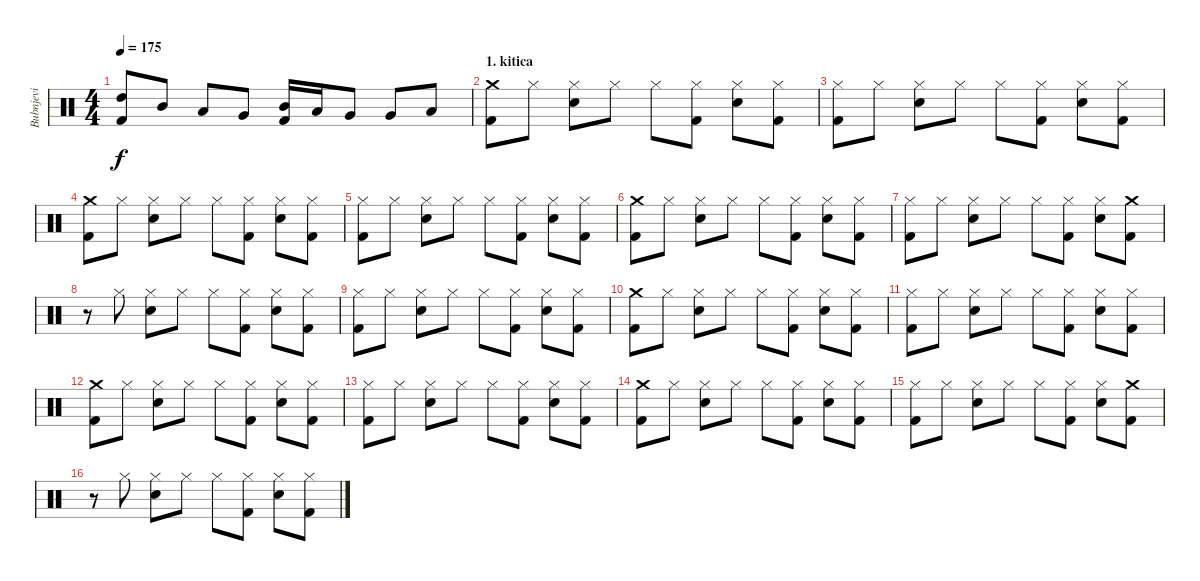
\track ("Bubnjevi" "Bubnjevi") {instrument percussion}
\staff {score}
\articulation defaults
\ts (4 4)
\tempo 175
\clef neutral
\ks c
("High Tom (hit)" "Kick (hit) 2").8{dy f} "Mid Tom (hit)".8 "Low Tom (hit)".8 "Very Low Tom (hit)".8 ("Mid Tom (hit)" "Kick (hit) 2").16 "Low Tom (hit)".16 "Very Low Tom (hit)".8 "Very Low Tom (hit)".8 "Low Floor Tom (hit)".8 |
\section ("" "1. kitica")
("Crash medium (hit)" "Kick (hit) 2").8 "Hi-Hat (closed)".8 ("Electric Snare (hit)" "Hi-Hat (closed)").8 "Hi-Hat (closed)".8 "Hi-Hat (closed)".8 ("Hi-Hat (closed)" "Kick (hit) 2").8 ("Electric Snare (hit)" "Hi-Hat (closed)").8 ("Hi-Hat (closed)" "Kick (hit) 2").8 |
("Hi-Hat (closed)" "Kick (hit) 2").8 "Hi-Hat (closed)".8 ("Electric Snare (hit)" "Hi-Hat (closed)").8 "Hi-Hat (closed)".8 "Hi-Hat (closed)".8 ("Hi-Hat (closed)" "Kick (hit) 2").8 ("Electric Snare (hit)" "Hi-Hat (closed)").8 ("Hi-Hat (closed)" "Kick (hit) 2").8 |
("Crash medium (hit)" "Kick (hit) 2").8 "Hi-Hat (closed)".8 ("Electric Snare (hit)" "Hi-Hat (closed)").8 "Hi-Hat (closed)".8 "Hi-Hat (closed)".8 ("Hi-Hat (closed)" "Kick (hit) 2").8 ("Electric Snare (hit)" "Hi-Hat (closed)").8 ("Hi-Hat (closed)" "Kick (hit) 2").8 |
("Hi-Hat (closed)" "Kick (hit) 2").8 "Hi-Hat (closed)".8 ("Electric Snare (hit)" "Hi-Hat (closed)").8 "Hi-Hat (closed)".8 "Hi-Hat (closed)".8 ("Hi-Hat (closed)" "Kick (hit) 2").8 ("Electric Snare (hit)" "Hi-Hat (closed)").8 ("Hi-Hat (closed)" "Kick (hit) 2").8 |
("Crash medium (hit)" "Kick (hit) 2").8 "Hi-Hat (closed)".8 ("Electric Snare (hit)" "Hi-Hat (closed)").8 "Hi-Hat (closed)".8 "Hi-Hat (closed)".8 ("Hi-Hat (closed)" "Kick (hit) 2").8 ("Electric Snare (hit)" "Hi-Hat (closed)").8 ("Hi-Hat (closed)" "Kick (hit) 2").8 |
("Hi-Hat (closed)" "Kick (hit) 2").8 "Hi-Hat (closed)".8 ("Electric Snare (hit)" "Hi-Hat (closed)").8 "Hi-Hat (closed)".8 "Hi-Hat (closed)".8 ("Hi-Hat (closed)" "Kick (hit) 2").8 ("Electric Snare (hit)" "Hi-Hat (closed)").8 ("Crash medium (hit)" "Kick (hit) 2").8 |
r.8 "Hi-Hat (closed)".8 ("Electric Snare (hit)" "Hi-Hat (closed)").8 "Hi-Hat (closed)".8 "Hi-Hat (closed)".8 ("Hi-Hat (closed)" "Kick (hit) 2").8 ("Electric Snare (hit)" "Hi-Hat (closed)").8 ("Hi-Hat (closed)" "Kick (hit) 2").8 |
("Hi-Hat (closed)" "Kick (hit) 2").8 "Hi-Hat (closed)".8 ("Electric Snare (hit)" "Hi-Hat (closed)").8 "Hi-Hat (closed)".8 "Hi-Hat (closed)".8 ("Hi-Hat (closed)" "Kick (hit) 2").8 ("Electric Snare (hit)" "Hi-Hat (closed)").8 ("Hi-Hat (closed)" "Kick (hit) 2").8 |
("Crash medium (hit)" "Kick (hit) 2").8 "Hi-Hat (closed)".8 ("Electric Snare (hit)" "Hi-Hat (closed)").8 "Hi-Hat (closed)".8 "Hi-Hat (closed)".8 ("Hi-Hat (closed)" "Kick (hit) 2").8 ("Electric Snare (hit)" "Hi-Hat (closed)").8 ("Hi-Hat (closed)" "Kick (hit) 2").8 |
("Hi-Hat (closed)" "Kick (hit) 2").8 "Hi-Hat (closed)".8 ("Electric Snare (hit)" "Hi-Hat (closed)").8 "Hi-Hat (closed)".8 "Hi-Hat (closed)".8 ("Hi-Hat (closed)" "Kick (hit) 2").8 ("Electric Snare (hit)" "Hi-Hat (closed)").8 ("Hi-Hat (closed)" "Kick (hit) 2").8 |
("Crash medium (hit)" "Kick (hit) 2").8 "Hi-Hat (closed)".8 ("Electric Snare (hit)" "Hi-Hat (closed)").8 "Hi-Hat (closed)".8 "Hi-Hat (closed)".8 ("Hi-Hat (closed)" "Kick (hit) 2").8 ("Electric Snare (hit)" "Hi-Hat (closed)").8 ("Hi-Hat (closed)" "Kick (hit) 2").8 |
("Hi-Hat (closed)" "Kick (hit) 2").8 "Hi-Hat (closed)".8 ("Electric Snare (hit)" "Hi-Hat (closed)").8 "Hi-Hat (closed)".8 "Hi-Hat (closed)".8 ("Hi-Hat (closed)" "Kick (hit) 2").8 ("Electric Snare (hit)" "Hi-Hat (closed)").8 ("Hi-Hat (closed)" "Kick (hit) 2").8 |
("Crash medium (hit)" "Kick (hit) 2").8 "Hi-Hat (closed)".8 ("Electric Snare (hit)" "Hi-Hat (closed)").8 "Hi-Hat (closed)".8 "Hi-Hat (closed)".8 ("Hi-Hat (closed)" "Kick (hit) 2").8 ("Electric Snare (hit)" "Hi-Hat (closed)").8 ("Hi-Hat (closed)" "Kick (hit) 2").8 |
("Hi-Hat (closed)" "Kick (hit) 2").8 "Hi-Hat (closed)".8 ("Electric Snare (hit)" "Hi-Hat (closed)").8 "Hi-Hat (closed)".8 "Hi-Hat (closed)".8 ("Hi-Hat (closed)" "Kick (hit) 2").8 ("Electric Snare (hit)" "Hi-Hat (closed)").8 ("Crash medium (hit)" "Kick (hit) 2").8 |
r.8 "Hi-Hat (closed)".8 ("Electric Snare (hit)" "Hi-Hat (closed)").8 "Hi-Hat (closed)".8 "Hi-Hat (closed)".8 ("Hi-Hat (closed)" "Kick (hit) 2").8 ("Electric Snare (hit)" "Hi-Hat (closed)").8 ("Hi-Hat (closed)" "Kick (hit) 2").8
